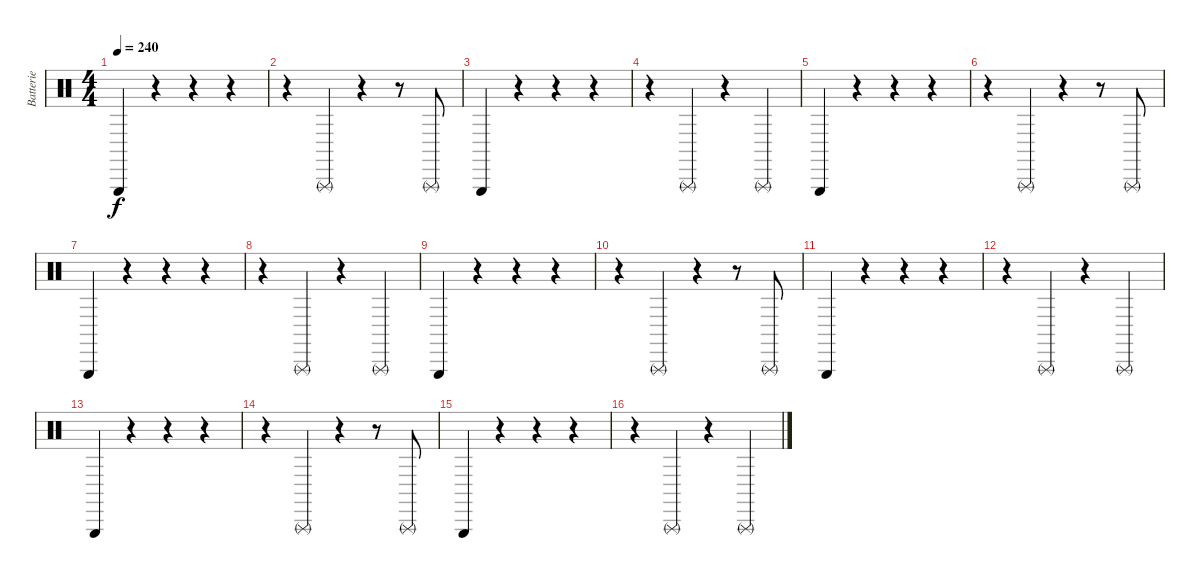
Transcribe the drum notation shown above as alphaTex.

\track ("Batterie" "Batterie") {instrument percussion}
\staff {score}
\articulation defaults
\ts (4 4)
\tempo 240
\clef neutral
\ks c "Triangle (hit)".4{dy f}
r.4 r.4 r.4 |
r.4 "Triangle (rnute)".4 r.4 r.8 "Triangle (rnute)".8 |
"Triangle (hit)".4 r.4 r.4 r.4 |
r.4 "Triangle (rnute)".4 r.4 "Triangle (rnute)".4 |
"Triangle (hit)".4 r.4 r.4 r.4 |
r.4 "Triangle (rnute)".4 r.4 r.8 "Triangle (rnute)".8 |
"Triangle (hit)".4 r.4 r.4 r.4 |
r.4 "Triangle (rnute)".4 r.4 "Triangle (rnute)".4 |
"Triangle (hit)".4{volume 7} r.4 r.4 r.4 |
r.4 "Triangle (rnute)".4 r.4 r.8 "Triangle (rnute)".8 |
"Triangle (hit)".4 r.4 r.4 r.4 |
r.4 "Triangle (rnute)".4 r.4 "Triangle (rnute)".4 |
"Triangle (hit)".4{volume 0} r.4 r.4 r.4 |
r.4 "Triangle (rnute)".4 r.4 r.8 "Triangle (rnute)".8 |
"Triangle (hit)".4 r.4 r.4 r.4 |
r.4 "Triangle (rnute)".4 r.4 "Triangle (rnute)".4
